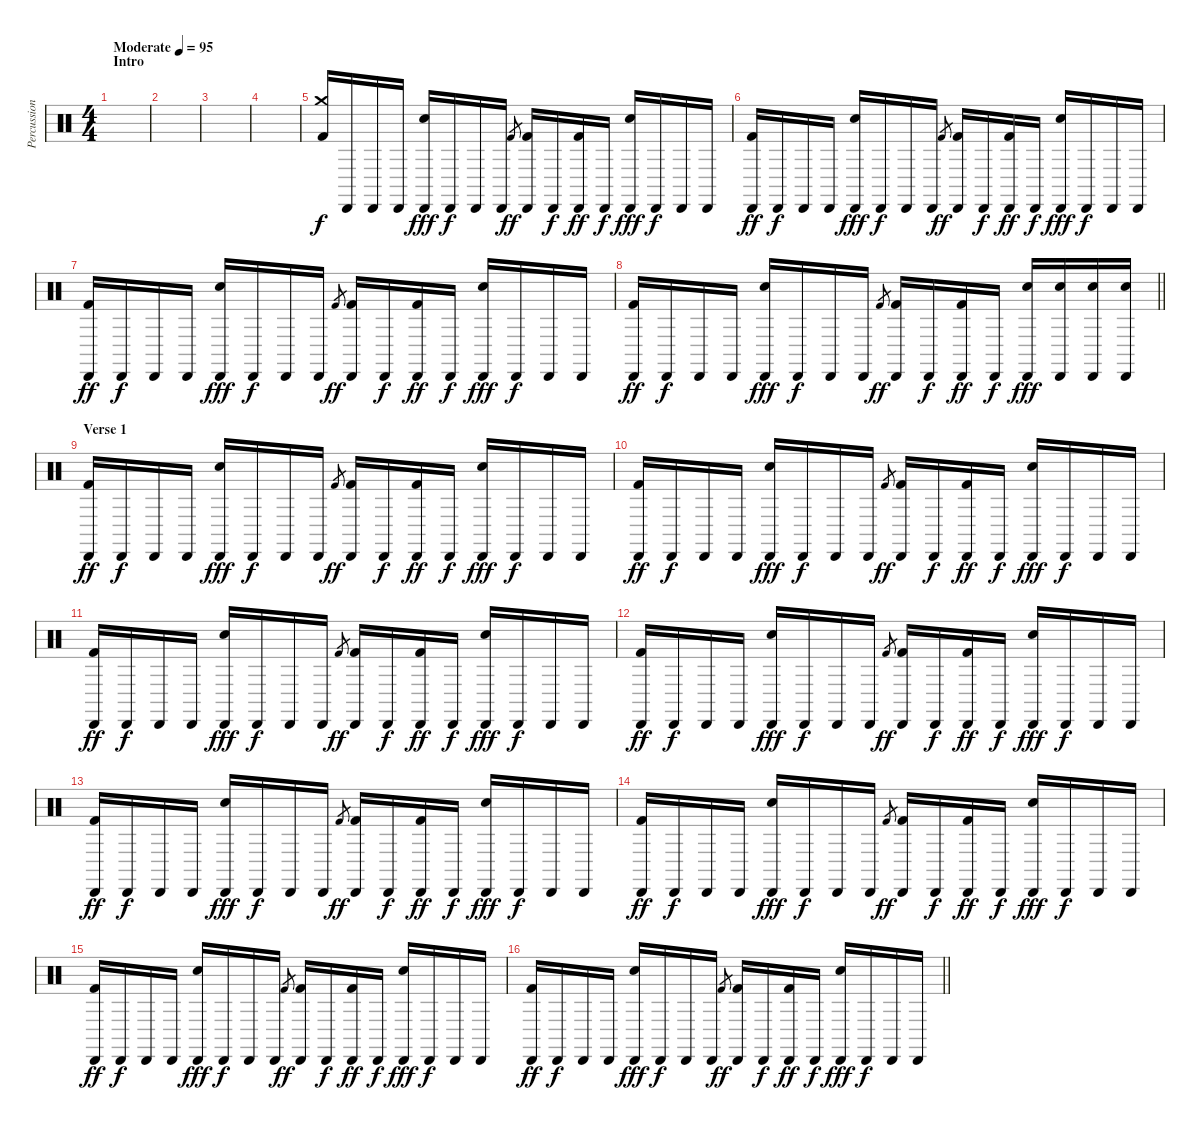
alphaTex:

\track ("Percussion" "Percussion") {instrument percussion}
\staff {score}
\articulation defaults
\ts (4 4)
\section ("" "Intro")
\tempo (95 "Moderate")
\clef neutral
\ks c
|
|
|
|
("Crash medium (hit)" "Kick (hit) 2").16 "Cabasa (hit)".16{dy f} "Cabasa (hit)".16 "Cabasa (hit)".16 ("Cabasa (hit)" "Electric Snare (hit)").16{dy fff} "Cabasa (hit)".16{dy f} "Cabasa (hit)".16 "Cabasa (hit)".16 "Kick (hit) 2".8{gr dy ff} ("Cabasa (hit)" "Kick (hit) 2").16 "Cabasa (hit)".16{dy f} ("Cabasa (hit)" "Kick (hit) 2").16{dy ff} "Cabasa (hit)".16{dy f} ("Cabasa (hit)" "Electric Snare (hit)").16{dy fff} "Cabasa (hit)".16{dy f} "Cabasa (hit)".16 "Cabasa (hit)".16 |
("Cabasa (hit)" "Kick (hit) 2").16{dy ff} "Cabasa (hit)".16{dy f} "Cabasa (hit)".16 "Cabasa (hit)".16 ("Cabasa (hit)" "Electric Snare (hit)").16{dy fff} "Cabasa (hit)".16{dy f} "Cabasa (hit)".16 "Cabasa (hit)".16 "Kick (hit) 2".8{gr dy ff} ("Cabasa (hit)" "Kick (hit) 2").16 "Cabasa (hit)".16{dy f} ("Cabasa (hit)" "Kick (hit) 2").16{dy ff} "Cabasa (hit)".16{dy f} ("Cabasa (hit)" "Electric Snare (hit)").16{dy fff} "Cabasa (hit)".16{dy f} "Cabasa (hit)".16 "Cabasa (hit)".16 |
("Cabasa (hit)" "Kick (hit) 2").16{dy ff} "Cabasa (hit)".16{dy f} "Cabasa (hit)".16 "Cabasa (hit)".16 ("Cabasa (hit)" "Electric Snare (hit)").16{dy fff} "Cabasa (hit)".16{dy f} "Cabasa (hit)".16 "Cabasa (hit)".16 "Kick (hit) 2".8{gr dy ff} ("Cabasa (hit)" "Kick (hit) 2").16 "Cabasa (hit)".16{dy f} ("Cabasa (hit)" "Kick (hit) 2").16{dy ff} "Cabasa (hit)".16{dy f} ("Cabasa (hit)" "Electric Snare (hit)").16{dy fff} "Cabasa (hit)".16{dy f} "Cabasa (hit)".16 "Cabasa (hit)".16 |
\barLineRight lightlight
("Cabasa (hit)" "Kick (hit) 2").16{dy ff} "Cabasa (hit)".16{dy f} "Cabasa (hit)".16 "Cabasa (hit)".16 ("Cabasa (hit)" "Electric Snare (hit)").16{dy fff} "Cabasa (hit)".16{dy f} "Cabasa (hit)".16 "Cabasa (hit)".16 "Kick (hit) 2".8{gr dy ff} ("Cabasa (hit)" "Kick (hit) 2").16 "Cabasa (hit)".16{dy f} ("Cabasa (hit)" "Kick (hit) 2").16{dy ff} "Cabasa (hit)".16{dy f} ("Cabasa (hit)" "Electric Snare (hit)").16{dy fff} ("Cabasa (hit)" "Electric Snare (hit)").16 ("Cabasa (hit)" "Electric Snare (hit)").16 ("Cabasa (hit)" "Electric Snare (hit)").16 |
\section ("" "Verse 1")
("Cabasa (hit)" "Kick (hit) 2").16{dy ff} "Cabasa (hit)".16{dy f} "Cabasa (hit)".16 "Cabasa (hit)".16 ("Cabasa (hit)" "Electric Snare (hit)").16{dy fff} "Cabasa (hit)".16{dy f} "Cabasa (hit)".16 "Cabasa (hit)".16 "Kick (hit) 2".8{gr dy ff} ("Cabasa (hit)" "Kick (hit) 2").16 "Cabasa (hit)".16{dy f} ("Cabasa (hit)" "Kick (hit) 2").16{dy ff} "Cabasa (hit)".16{dy f} ("Cabasa (hit)" "Electric Snare (hit)").16{dy fff} "Cabasa (hit)".16{dy f} "Cabasa (hit)".16 "Cabasa (hit)".16 |
("Cabasa (hit)" "Kick (hit) 2").16{dy ff} "Cabasa (hit)".16{dy f} "Cabasa (hit)".16 "Cabasa (hit)".16 ("Cabasa (hit)" "Electric Snare (hit)").16{dy fff} "Cabasa (hit)".16{dy f} "Cabasa (hit)".16 "Cabasa (hit)".16 "Kick (hit) 2".8{gr dy ff} ("Cabasa (hit)" "Kick (hit) 2").16 "Cabasa (hit)".16{dy f} ("Cabasa (hit)" "Kick (hit) 2").16{dy ff} "Cabasa (hit)".16{dy f} ("Cabasa (hit)" "Electric Snare (hit)").16{dy fff} "Cabasa (hit)".16{dy f} "Cabasa (hit)".16 "Cabasa (hit)".16 |
("Cabasa (hit)" "Kick (hit) 2").16{dy ff} "Cabasa (hit)".16{dy f} "Cabasa (hit)".16 "Cabasa (hit)".16 ("Cabasa (hit)" "Electric Snare (hit)").16{dy fff} "Cabasa (hit)".16{dy f} "Cabasa (hit)".16 "Cabasa (hit)".16 "Kick (hit) 2".8{gr dy ff} ("Cabasa (hit)" "Kick (hit) 2").16 "Cabasa (hit)".16{dy f} ("Cabasa (hit)" "Kick (hit) 2").16{dy ff} "Cabasa (hit)".16{dy f} ("Cabasa (hit)" "Electric Snare (hit)").16{dy fff} "Cabasa (hit)".16{dy f} "Cabasa (hit)".16 "Cabasa (hit)".16 |
("Cabasa (hit)" "Kick (hit) 2").16{dy ff} "Cabasa (hit)".16{dy f} "Cabasa (hit)".16 "Cabasa (hit)".16 ("Cabasa (hit)" "Electric Snare (hit)").16{dy fff} "Cabasa (hit)".16{dy f} "Cabasa (hit)".16 "Cabasa (hit)".16 "Kick (hit) 2".8{gr dy ff} ("Cabasa (hit)" "Kick (hit) 2").16 "Cabasa (hit)".16{dy f} ("Cabasa (hit)" "Kick (hit) 2").16{dy ff} "Cabasa (hit)".16{dy f} ("Cabasa (hit)" "Electric Snare (hit)").16{dy fff} "Cabasa (hit)".16{dy f} "Cabasa (hit)".16 "Cabasa (hit)".16 |
("Cabasa (hit)" "Kick (hit) 2").16{dy ff} "Cabasa (hit)".16{dy f} "Cabasa (hit)".16 "Cabasa (hit)".16 ("Cabasa (hit)" "Electric Snare (hit)").16{dy fff} "Cabasa (hit)".16{dy f} "Cabasa (hit)".16 "Cabasa (hit)".16 "Kick (hit) 2".8{gr dy ff} ("Cabasa (hit)" "Kick (hit) 2").16 "Cabasa (hit)".16{dy f} ("Cabasa (hit)" "Kick (hit) 2").16{dy ff} "Cabasa (hit)".16{dy f} ("Cabasa (hit)" "Electric Snare (hit)").16{dy fff} "Cabasa (hit)".16{dy f} "Cabasa (hit)".16 "Cabasa (hit)".16 |
("Cabasa (hit)" "Kick (hit) 2").16{dy ff} "Cabasa (hit)".16{dy f} "Cabasa (hit)".16 "Cabasa (hit)".16 ("Cabasa (hit)" "Electric Snare (hit)").16{dy fff} "Cabasa (hit)".16{dy f} "Cabasa (hit)".16 "Cabasa (hit)".16 "Kick (hit) 2".8{gr dy ff} ("Cabasa (hit)" "Kick (hit) 2").16 "Cabasa (hit)".16{dy f} ("Cabasa (hit)" "Kick (hit) 2").16{dy ff} "Cabasa (hit)".16{dy f} ("Cabasa (hit)" "Electric Snare (hit)").16{dy fff} "Cabasa (hit)".16{dy f} "Cabasa (hit)".16 "Cabasa (hit)".16 |
("Cabasa (hit)" "Kick (hit) 2").16{dy ff} "Cabasa (hit)".16{dy f} "Cabasa (hit)".16 "Cabasa (hit)".16 ("Cabasa (hit)" "Electric Snare (hit)").16{dy fff} "Cabasa (hit)".16{dy f} "Cabasa (hit)".16 "Cabasa (hit)".16 "Kick (hit) 2".8{gr dy ff} ("Cabasa (hit)" "Kick (hit) 2").16 "Cabasa (hit)".16{dy f} ("Cabasa (hit)" "Kick (hit) 2").16{dy ff} "Cabasa (hit)".16{dy f} ("Cabasa (hit)" "Electric Snare (hit)").16{dy fff} "Cabasa (hit)".16{dy f} "Cabasa (hit)".16 "Cabasa (hit)".16 |
\barLineRight lightlight
("Cabasa (hit)" "Kick (hit) 2").16{dy ff} "Cabasa (hit)".16{dy f} "Cabasa (hit)".16 "Cabasa (hit)".16 ("Cabasa (hit)" "Electric Snare (hit)").16{dy fff} "Cabasa (hit)".16{dy f} "Cabasa (hit)".16 "Cabasa (hit)".16 "Kick (hit) 2".8{gr dy ff} ("Cabasa (hit)" "Kick (hit) 2").16 "Cabasa (hit)".16{dy f} ("Cabasa (hit)" "Kick (hit) 2").16{dy ff} "Cabasa (hit)".16{dy f} ("Cabasa (hit)" "Electric Snare (hit)").16{dy fff} "Cabasa (hit)".16{dy f} "Cabasa (hit)".16 "Cabasa (hit)".16
